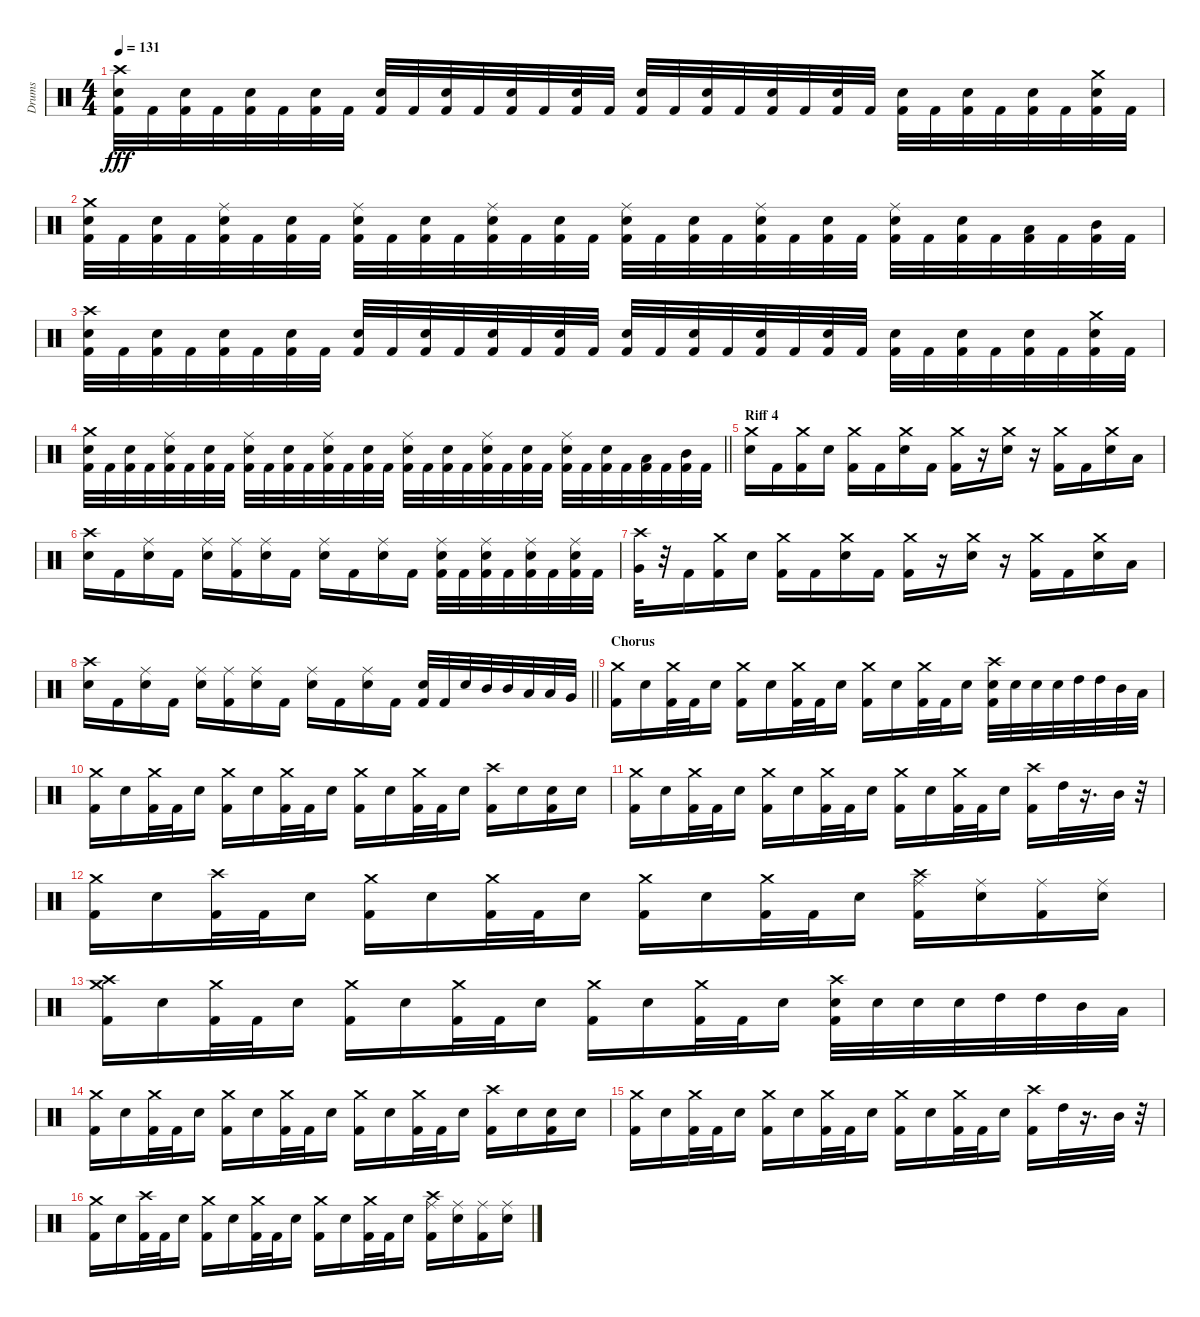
\track ("Drums" "Drums") {instrument percussion}
\staff {score}
\articulation defaults
\ts (4 4)
\tempo 131
\clef neutral
\ks c
("Crash high (hit)" "Kick (hit) 2" "Snare (hit) 2").32{dy fff} "Kick (hit) 2".32 ("Kick (hit) 2" "Snare (hit) 2").32 "Kick (hit) 2".32 ("Kick (hit) 2" "Snare (hit) 2").32 "Kick (hit) 2".32 ("Kick (hit) 2" "Snare (hit) 2").32 "Kick (hit) 2".32 ("Kick (hit) 2" "Snare (hit) 2").32 "Kick (hit) 2".32 ("Kick (hit) 2" "Snare (hit) 2").32 "Kick (hit) 2".32 ("Kick (hit) 2" "Snare (hit) 2").32 "Kick (hit) 2".32 ("Kick (hit) 2" "Snare (hit) 2").32 "Kick (hit) 2".32 ("Kick (hit) 2" "Snare (hit) 2").32 "Kick (hit) 2".32 ("Kick (hit) 2" "Snare (hit) 2").32 "Kick (hit) 2".32 ("Kick (hit) 2" "Snare (hit) 2").32 "Kick (hit) 2".32 ("Kick (hit) 2" "Snare (hit) 2").32 "Kick (hit) 2".32 ("Kick (hit) 2" "Snare (hit) 2").32 "Kick (hit) 2".32 ("Kick (hit) 2" "Snare (hit) 2").32 "Kick (hit) 2".32 ("Kick (hit) 2" "Snare (hit) 2").32 "Kick (hit) 2".32 ("Crash medium (hit)" "Kick (hit) 2" "Snare (hit) 2").32 "Kick (hit) 2".32 |
("Crash medium (hit)" "Kick (hit) 2" "Snare (hit) 2").32 "Kick (hit) 2".32 ("Kick (hit) 2" "Snare (hit) 2").32 "Kick (hit) 2".32 ("Kick (hit) 2" "Snare (hit) 2" "Ride (middle)").32 "Kick (hit) 2".32 ("Kick (hit) 2" "Snare (hit) 2").32 "Kick (hit) 2".32 ("Kick (hit) 2" "Snare (hit) 2" "Ride (middle)").32 "Kick (hit) 2".32 ("Kick (hit) 2" "Snare (hit) 2").32 "Kick (hit) 2".32 ("Kick (hit) 2" "Snare (hit) 2" "Ride (middle)").32 "Kick (hit) 2".32 ("Kick (hit) 2" "Snare (hit) 2").32 "Kick (hit) 2".32 ("Kick (hit) 2" "Snare (hit) 2" "Ride (middle)").32 "Kick (hit) 2".32 ("Kick (hit) 2" "Snare (hit) 2").32 "Kick (hit) 2".32 ("Kick (hit) 2" "Snare (hit) 2" "Ride (middle)").32 "Kick (hit) 2".32 ("Kick (hit) 2" "Snare (hit) 2").32 "Kick (hit) 2".32 ("Kick (hit) 2" "Snare (hit) 2" "Ride (middle)").32 "Kick (hit) 2".32 ("Kick (hit) 2" "Snare (hit) 2").32 "Kick (hit) 2".32 ("Kick (hit) 2" "Low Tom (hit)").32 "Kick (hit) 2".32 ("Kick (hit) 2" "Mid Tom (hit)").32 "Kick (hit) 2".32 |
("Crash high (hit)" "Kick (hit) 2" "Snare (hit) 2").32 "Kick (hit) 2".32 ("Kick (hit) 2" "Snare (hit) 2").32 "Kick (hit) 2".32 ("Kick (hit) 2" "Snare (hit) 2").32 "Kick (hit) 2".32 ("Kick (hit) 2" "Snare (hit) 2").32 "Kick (hit) 2".32 ("Kick (hit) 2" "Snare (hit) 2").32 "Kick (hit) 2".32 ("Kick (hit) 2" "Snare (hit) 2").32 "Kick (hit) 2".32 ("Kick (hit) 2" "Snare (hit) 2").32 "Kick (hit) 2".32 ("Kick (hit) 2" "Snare (hit) 2").32 "Kick (hit) 2".32 ("Kick (hit) 2" "Snare (hit) 2").32 "Kick (hit) 2".32 ("Kick (hit) 2" "Snare (hit) 2").32 "Kick (hit) 2".32 ("Kick (hit) 2" "Snare (hit) 2").32 "Kick (hit) 2".32 ("Kick (hit) 2" "Snare (hit) 2").32 "Kick (hit) 2".32 ("Kick (hit) 2" "Snare (hit) 2").32 "Kick (hit) 2".32 ("Kick (hit) 2" "Snare (hit) 2").32 "Kick (hit) 2".32 ("Kick (hit) 2" "Snare (hit) 2").32 "Kick (hit) 2".32 ("Crash medium (hit)" "Kick (hit) 2" "Snare (hit) 2").32 "Kick (hit) 2".32 |
\barLineRight lightlight
("Crash medium (hit)" "Kick (hit) 2" "Snare (hit) 2").32 "Kick (hit) 2".32 ("Kick (hit) 2" "Snare (hit) 2").32 "Kick (hit) 2".32 ("Kick (hit) 2" "Snare (hit) 2" "Ride (middle)").32 "Kick (hit) 2".32 ("Kick (hit) 2" "Snare (hit) 2").32 "Kick (hit) 2".32 ("Kick (hit) 2" "Snare (hit) 2" "Ride (middle)").32 "Kick (hit) 2".32 ("Kick (hit) 2" "Snare (hit) 2").32 "Kick (hit) 2".32 ("Kick (hit) 2" "Snare (hit) 2" "Ride (middle)").32 "Kick (hit) 2".32 ("Kick (hit) 2" "Snare (hit) 2").32 "Kick (hit) 2".32 ("Kick (hit) 2" "Snare (hit) 2" "Ride (middle)").32 "Kick (hit) 2".32 ("Kick (hit) 2" "Snare (hit) 2").32 "Kick (hit) 2".32 ("Kick (hit) 2" "Snare (hit) 2" "Ride (middle)").32 "Kick (hit) 2".32 ("Kick (hit) 2" "Snare (hit) 2").32 "Kick (hit) 2".32 ("Kick (hit) 2" "Snare (hit) 2" "Ride (middle)").32 "Kick (hit) 2".32 ("Kick (hit) 2" "Snare (hit) 2").32 "Kick (hit) 2".32 ("Kick (hit) 2" "Low Tom (hit)").32 "Kick (hit) 2".32 ("Kick (hit) 2" "Mid Tom (hit)").32 "Kick (hit) 2".32 |
\section ("" "Riff 4")
("Crash medium (hit)" "Snare (hit) 2").16 "Kick (hit) 2".16 ("Crash medium (hit)" "Kick (hit) 2").16 "Snare (hit) 2".16 ("Crash medium (hit)" "Kick (hit) 2").16 "Kick (hit) 2".16 ("Crash medium (hit)" "Snare (hit) 2").16 "Kick (hit) 2".16 ("Crash medium (hit)" "Kick (hit) 2").16 r.16 ("Crash medium (hit)" "Snare (hit) 2").16 r.16 ("Crash medium (hit)" "Kick (hit) 2").16 "Kick (hit) 2".16 ("Crash medium (hit)" "Snare (hit) 2").16 "Low Tom (hit)".16 |
("Crash high (hit)" "Snare (hit) 2").16 "Kick (hit) 2".16 ("Snare (hit) 2" "Ride (middle)").16 "Kick (hit) 2".16 ("Snare (hit) 2" "Ride (middle)").16 ("Kick (hit) 2" "Ride (middle)").16 ("Snare (hit) 2" "Ride (middle)").16 "Kick (hit) 2".16 ("Snare (hit) 2" "Ride (middle)").16 "Kick (hit) 2".16 ("Snare (hit) 2" "Ride (middle)").16 "Kick (hit) 2".16 ("Kick (hit) 2" "Snare (hit) 2" "Ride (middle)").32 "Kick (hit) 2".32 ("Kick (hit) 2" "Snare (hit) 2" "Ride (middle)").32 "Kick (hit) 2".32 ("Kick (hit) 2" "Snare (hit) 2" "Ride (middle)").32 "Kick (hit) 2".32 ("Kick (hit) 2" "Snare (hit) 2" "Ride (middle)").32 "Kick (hit) 2".32 |
("Crash high (hit)" "Very Low Tom (hit)").32 r.32 "Kick (hit) 2".16 ("Crash medium (hit)" "Kick (hit) 2").16 "Snare (hit) 2".16 ("Crash medium (hit)" "Kick (hit) 2").16 "Kick (hit) 2".16 ("Crash medium (hit)" "Snare (hit) 2").16 "Kick (hit) 2".16 ("Crash medium (hit)" "Kick (hit) 2").16 r.16 ("Crash medium (hit)" "Snare (hit) 2").16 r.16 ("Crash medium (hit)" "Kick (hit) 2").16 "Kick (hit) 2".16 ("Crash medium (hit)" "Snare (hit) 2").16 "Low Tom (hit)".16 |
\barLineRight lightlight
("Crash high (hit)" "Snare (hit) 2").16 "Kick (hit) 2".16 ("Snare (hit) 2" "Ride (middle)").16 "Kick (hit) 2".16 ("Snare (hit) 2" "Ride (middle)").16 ("Kick (hit) 2" "Ride (middle)").16 ("Snare (hit) 2" "Ride (middle)").16 "Kick (hit) 2".16 ("Snare (hit) 2" "Ride (middle)").16 "Kick (hit) 2".16 ("Snare (hit) 2" "Ride (middle)").16 "Kick (hit) 2".16 ("Kick (hit) 2" "Snare (hit) 2").32 "Kick (hit) 2".32 "Snare (hit) 2".32 "Mid Tom (hit)".32 "Mid Tom (hit)".32 "Low Tom (hit)".32 "Low Tom (hit)".32 "Very Low Tom (hit)".32 |
\section ("" "Chorus")
("Crash medium (hit)" "Kick (hit) 2").16 "Snare (hit) 2".16 ("Crash medium (hit)" "Kick (hit) 2").32 "Kick (hit) 2".32 "Snare (hit) 2".16 ("Crash medium (hit)" "Kick (hit) 2").16 "Snare (hit) 2".16 ("Crash medium (hit)" "Kick (hit) 2").32 "Kick (hit) 2".32 "Snare (hit) 2".16 ("Crash medium (hit)" "Kick (hit) 2").16 "Snare (hit) 2".16 ("Crash medium (hit)" "Kick (hit) 2").32 "Kick (hit) 2".32 "Snare (hit) 2".16 ("Crash high (hit)" "Kick (hit) 2" "Snare (hit) 2").32 "Snare (hit) 2".32 "Snare (hit) 2".32 "Snare (hit) 2".32 "High Tom (hit)".32 "High Tom (hit)".32 "Mid Tom (hit)".32 "Low Tom (hit)".32 |
("Crash medium (hit)" "Kick (hit) 2").16 "Snare (hit) 2".16 ("Crash medium (hit)" "Kick (hit) 2").32 "Kick (hit) 2".32 "Snare (hit) 2".16 ("Crash medium (hit)" "Kick (hit) 2").16 "Snare (hit) 2".16 ("Crash medium (hit)" "Kick (hit) 2").32 "Kick (hit) 2".32 "Snare (hit) 2".16 ("Crash medium (hit)" "Kick (hit) 2").16 "Snare (hit) 2".16 ("Crash medium (hit)" "Kick (hit) 2").32 "Kick (hit) 2".32 "Snare (hit) 2".16 ("Crash high (hit)" "Kick (hit) 2").16 "Snare (hit) 2".16 ("Kick (hit) 2" "Snare (hit) 2").16 "Snare (hit) 2".16 |
("Crash medium (hit)" "Kick (hit) 2").16 "Snare (hit) 2".16 ("Crash medium (hit)" "Kick (hit) 2").32 "Kick (hit) 2".32 "Snare (hit) 2".16 ("Crash medium (hit)" "Kick (hit) 2").16 "Snare (hit) 2".16 ("Crash medium (hit)" "Kick (hit) 2").32 "Kick (hit) 2".32 "Snare (hit) 2".16 ("Crash medium (hit)" "Kick (hit) 2").16 "Snare (hit) 2".16 ("Crash medium (hit)" "Kick (hit) 2").32 "Kick (hit) 2".32 "Snare (hit) 2".16 ("Crash high (hit)" "Kick (hit) 2").16 "High Tom (hit)".32 r.16{d} "Mid Tom (hit)".32 r.32 |
("Crash medium (hit)" "Kick (hit) 2").16 "Snare (hit) 2".16 ("Crash high (hit)" "Kick (hit) 2").32 "Kick (hit) 2".32 "Snare (hit) 2".16 ("Crash medium (hit)" "Kick (hit) 2").16 "Snare (hit) 2".16 ("Crash medium (hit)" "Kick (hit) 2").32 "Kick (hit) 2".32 "Snare (hit) 2".16 ("Crash medium (hit)" "Kick (hit) 2").16 "Snare (hit) 2".16 ("Crash medium (hit)" "Kick (hit) 2").32 "Kick (hit) 2".32 "Snare (hit) 2".16 ("Crash high (hit)" "Kick (hit) 2" "Ride (middle)").16 ("Snare (hit) 2" "Ride (middle)").16 ("Kick (hit) 2" "Ride (middle)").16 ("Snare (hit) 2" "Ride (middle)").16 |
("Crash high (hit)" "Crash medium (hit)" "Kick (hit) 2").16 "Snare (hit) 2".16 ("Crash medium (hit)" "Kick (hit) 2").32 "Kick (hit) 2".32 "Snare (hit) 2".16 ("Crash medium (hit)" "Kick (hit) 2").16 "Snare (hit) 2".16 ("Crash medium (hit)" "Kick (hit) 2").32 "Kick (hit) 2".32 "Snare (hit) 2".16 ("Crash medium (hit)" "Kick (hit) 2").16 "Snare (hit) 2".16 ("Crash medium (hit)" "Kick (hit) 2").32 "Kick (hit) 2".32 "Snare (hit) 2".16 ("Crash high (hit)" "Kick (hit) 2" "Snare (hit) 2").32 "Snare (hit) 2".32 "Snare (hit) 2".32 "Snare (hit) 2".32 "High Tom (hit)".32 "High Tom (hit)".32 "Mid Tom (hit)".32 "Low Tom (hit)".32 |
("Crash medium (hit)" "Kick (hit) 2").16 "Snare (hit) 2".16 ("Crash medium (hit)" "Kick (hit) 2").32 "Kick (hit) 2".32 "Snare (hit) 2".16 ("Crash medium (hit)" "Kick (hit) 2").16 "Snare (hit) 2".16 ("Crash medium (hit)" "Kick (hit) 2").32 "Kick (hit) 2".32 "Snare (hit) 2".16 ("Crash medium (hit)" "Kick (hit) 2").16 "Snare (hit) 2".16 ("Crash medium (hit)" "Kick (hit) 2").32 "Kick (hit) 2".32 "Snare (hit) 2".16 ("Crash high (hit)" "Kick (hit) 2").16 "Snare (hit) 2".16 ("Kick (hit) 2" "Snare (hit) 2").16 "Snare (hit) 2".16 |
("Crash medium (hit)" "Kick (hit) 2").16 "Snare (hit) 2".16 ("Crash medium (hit)" "Kick (hit) 2").32 "Kick (hit) 2".32 "Snare (hit) 2".16 ("Crash medium (hit)" "Kick (hit) 2").16 "Snare (hit) 2".16 ("Crash medium (hit)" "Kick (hit) 2").32 "Kick (hit) 2".32 "Snare (hit) 2".16 ("Crash medium (hit)" "Kick (hit) 2").16 "Snare (hit) 2".16 ("Crash medium (hit)" "Kick (hit) 2").32 "Kick (hit) 2".32 "Snare (hit) 2".16 ("Crash high (hit)" "Kick (hit) 2").16 "High Tom (hit)".32 r.16{d} "Mid Tom (hit)".32 r.32 |
("Crash medium (hit)" "Kick (hit) 2").16 "Snare (hit) 2".16 ("Crash high (hit)" "Kick (hit) 2").32 "Kick (hit) 2".32 "Snare (hit) 2".16 ("Crash medium (hit)" "Kick (hit) 2").16 "Snare (hit) 2".16 ("Crash medium (hit)" "Kick (hit) 2").32 "Kick (hit) 2".32 "Snare (hit) 2".16 ("Crash medium (hit)" "Kick (hit) 2").16 "Snare (hit) 2".16 ("Crash medium (hit)" "Kick (hit) 2").32 "Kick (hit) 2".32 "Snare (hit) 2".16 ("Crash high (hit)" "Kick (hit) 2" "Ride (middle)").16 ("Snare (hit) 2" "Ride (middle)").16 ("Kick (hit) 2" "Ride (middle)").16 ("Snare (hit) 2" "Ride (middle)").16
